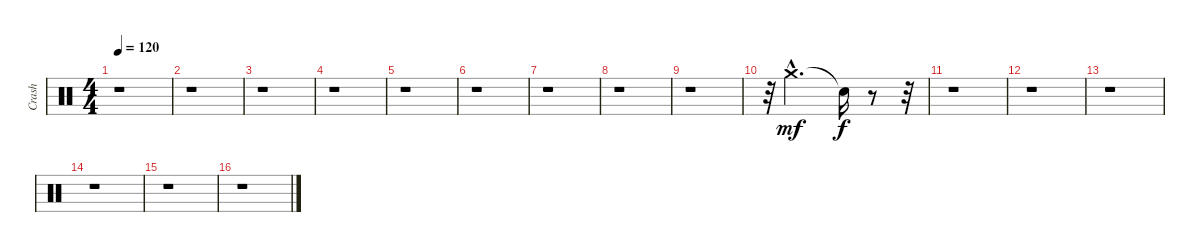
\track ("Crash" "Crash") {instrument percussion}
\staff {score}
\articulation defaults
\ts (4 4)
\tempo 120
\clef neutral
\ks c
r.1{dy mf} |
r.1 |
r.1 |
r.1 |
r.1 |
r.1 |
r.1 |
r.1 |
r.1 |
r.32 "Crash medium (hit)"{hac}.2{d} "Snare (hit)"{t}.16{dy f} r.8 r.32 |
r.1 |
r.1 |
r.1 |
r.1 |
r.1 |
r.1
